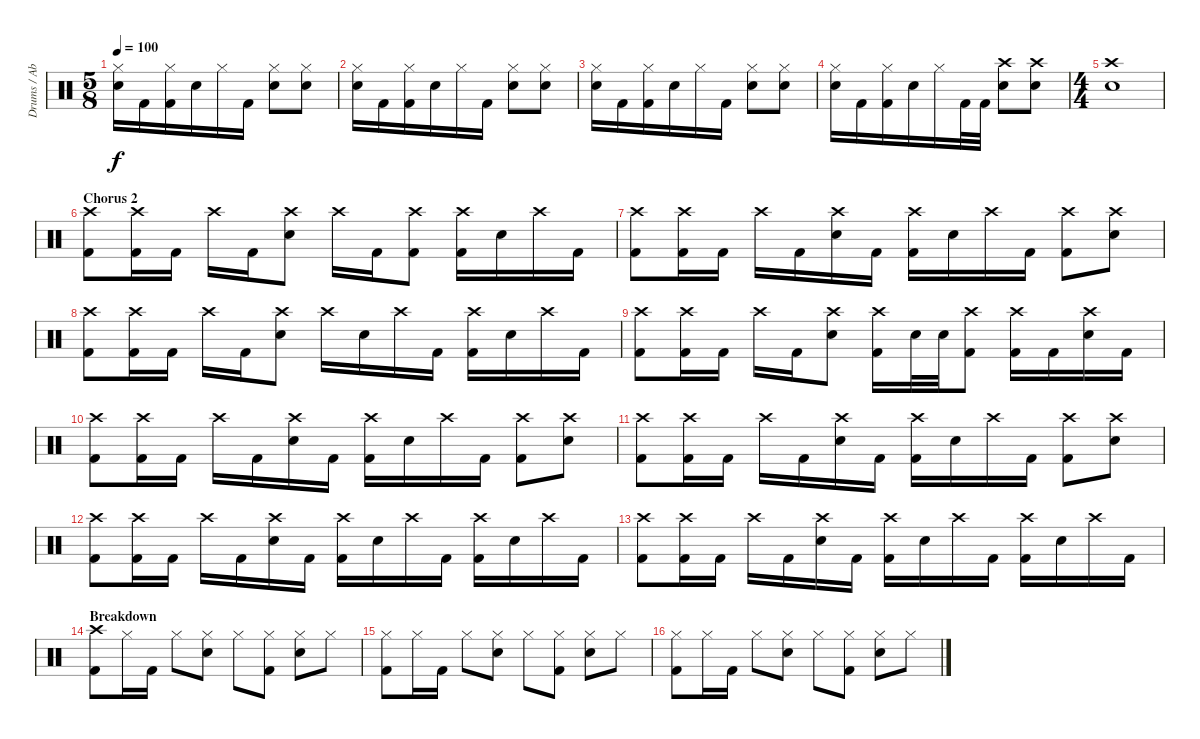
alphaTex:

\track ("Drums / Abe Cunningham" "Drums / Ab") {instrument percussion}
\staff {score}
\articulation defaults
\ts (5 8)
\tempo 100
\clef neutral
\ks c
("Hi-Hat (closed)" "Electric Snare (hit)").16{dy f} "Kick (hit) 2".16 ("Hi-Hat (closed)" "Kick (hit) 2").16 "Electric Snare (hit)".16 "Hi-Hat (closed)".16 "Kick (hit) 2".16 ("Hi-Hat (closed)" "Electric Snare (hit)").8 ("Hi-Hat (closed)" "Electric Snare (hit)").8 |
("Hi-Hat (closed)" "Electric Snare (hit)").16 "Kick (hit) 2".16 ("Hi-Hat (closed)" "Kick (hit) 2").16 "Electric Snare (hit)".16 "Hi-Hat (closed)".16 "Kick (hit) 2".16 ("Hi-Hat (closed)" "Electric Snare (hit)").8 ("Hi-Hat (closed)" "Electric Snare (hit)").8 |
("Hi-Hat (closed)" "Electric Snare (hit)").16 "Kick (hit) 2".16 ("Hi-Hat (closed)" "Kick (hit) 2").16 "Electric Snare (hit)".16 "Hi-Hat (closed)".16 "Kick (hit) 2".16 ("Hi-Hat (closed)" "Electric Snare (hit)").8 ("Hi-Hat (closed)" "Electric Snare (hit)").8 |
("Hi-Hat (closed)" "Electric Snare (hit)").16 "Kick (hit) 2".16 ("Hi-Hat (closed)" "Kick (hit) 2").16 "Electric Snare (hit)".16 "Hi-Hat (closed)".16 "Kick (hit) 2".32 "Kick (hit) 2".32 ("Crash high (hit)" "Electric Snare (hit)").8 ("Crash high (hit)" "Electric Snare (hit)").8 |
\ts (4 4)
("Crash high (hit)" "Electric Snare (hit)").1 |
\section ("" "Chorus 2")
("Crash high (hit)" "Kick (hit) 2").8 ("Crash high (hit)" "Kick (hit) 2").16 "Kick (hit) 2".16 "Crash high (hit)".16 "Kick (hit) 2".16 ("Crash high (hit)" "Electric Snare (hit)").8 "Crash high (hit)".16 "Kick (hit) 2".16 ("Crash high (hit)" "Kick (hit) 2").8 ("Crash high (hit)" "Kick (hit) 2").16 "Electric Snare (hit)".16 "Crash high (hit)".16 "Kick (hit) 2".16 |
("Crash high (hit)" "Kick (hit) 2").8 ("Crash high (hit)" "Kick (hit) 2").16 "Kick (hit) 2".16 "Crash high (hit)".16 "Kick (hit) 2".16 ("Crash high (hit)" "Electric Snare (hit)").16 "Kick (hit) 2".16 ("Crash high (hit)" "Kick (hit) 2").16 "Electric Snare (hit)".16 "Crash high (hit)".16 "Kick (hit) 2".16 ("Crash high (hit)" "Kick (hit) 2").8 ("Crash high (hit)" "Electric Snare (hit)").8 |
("Crash high (hit)" "Kick (hit) 2").8 ("Crash high (hit)" "Kick (hit) 2").16 "Kick (hit) 2".16 "Crash high (hit)".16 "Kick (hit) 2".16 ("Crash high (hit)" "Electric Snare (hit)").8 "Crash high (hit)".16 "Electric Snare (hit)".16 "Crash high (hit)".16 "Kick (hit) 2".16 ("Crash high (hit)" "Kick (hit) 2").16 "Electric Snare (hit)".16 "Crash high (hit)".16 "Kick (hit) 2".16 |
("Crash high (hit)" "Kick (hit) 2").8 ("Crash high (hit)" "Kick (hit) 2").16 "Kick (hit) 2".16 "Crash high (hit)".16 "Kick (hit) 2".16 ("Crash high (hit)" "Electric Snare (hit)").8 ("Crash high (hit)" "Kick (hit) 2").16 "Electric Snare (hit)".32 "Electric Snare (hit)".32 ("Crash high (hit)" "Kick (hit) 2").8 ("Crash high (hit)" "Kick (hit) 2").16 "Kick (hit) 2".16 ("Crash high (hit)" "Electric Snare (hit)").16 "Kick (hit) 2".16 |
("Crash high (hit)" "Kick (hit) 2").8 ("Crash high (hit)" "Kick (hit) 2").16 "Kick (hit) 2".16 "Crash high (hit)".16 "Kick (hit) 2".16 ("Crash high (hit)" "Electric Snare (hit)").16 "Kick (hit) 2".16 ("Crash high (hit)" "Kick (hit) 2").16 "Electric Snare (hit)".16 "Crash high (hit)".16 "Kick (hit) 2".16 ("Crash high (hit)" "Kick (hit) 2").8 ("Crash high (hit)" "Electric Snare (hit)").8 |
("Crash high (hit)" "Kick (hit) 2").8 ("Crash high (hit)" "Kick (hit) 2").16 "Kick (hit) 2".16 "Crash high (hit)".16 "Kick (hit) 2".16 ("Crash high (hit)" "Electric Snare (hit)").16 "Kick (hit) 2".16 ("Crash high (hit)" "Kick (hit) 2").16 "Electric Snare (hit)".16 "Crash high (hit)".16 "Kick (hit) 2".16 ("Crash high (hit)" "Kick (hit) 2").8 ("Crash high (hit)" "Electric Snare (hit)").8 |
("Crash high (hit)" "Kick (hit) 2").8 ("Crash high (hit)" "Kick (hit) 2").16 "Kick (hit) 2".16 "Crash high (hit)".16 "Kick (hit) 2".16 ("Crash high (hit)" "Electric Snare (hit)").16 "Kick (hit) 2".16 ("Crash high (hit)" "Kick (hit) 2").16 "Electric Snare (hit)".16 "Crash high (hit)".16 "Kick (hit) 2".16 ("Crash high (hit)" "Kick (hit) 2").16 "Electric Snare (hit)".16 "Crash high (hit)".16 "Kick (hit) 2".16 |
("Crash high (hit)" "Kick (hit) 2").8 ("Crash high (hit)" "Kick (hit) 2").16 "Kick (hit) 2".16 "Crash high (hit)".16 "Kick (hit) 2".16 ("Crash high (hit)" "Electric Snare (hit)").16 "Kick (hit) 2".16 ("Crash high (hit)" "Kick (hit) 2").16 "Electric Snare (hit)".16 "Crash high (hit)".16 "Kick (hit) 2".16 ("Crash high (hit)" "Kick (hit) 2").16 "Electric Snare (hit)".16 "Crash high (hit)".16 "Kick (hit) 2".16 |
\section ("" "Breakdown")
("Crash high (hit)" "Kick (hit) 2").8 "Hi-Hat (closed)".16 "Kick (hit) 2".16 "Hi-Hat (closed)".8 ("Hi-Hat (closed)" "Electric Snare (hit)").8 "Hi-Hat (closed)".8 ("Hi-Hat (closed)" "Kick (hit) 2").8 ("Hi-Hat (closed)" "Electric Snare (hit)").8 "Hi-Hat (closed)".8 |
("Hi-Hat (closed)" "Kick (hit) 2").8 "Hi-Hat (closed)".16 "Kick (hit) 2".16 "Hi-Hat (closed)".8 ("Hi-Hat (closed)" "Electric Snare (hit)").8 "Hi-Hat (closed)".8 ("Hi-Hat (closed)" "Kick (hit) 2").8 ("Hi-Hat (closed)" "Electric Snare (hit)").8 "Hi-Hat (closed)".8 |
("Hi-Hat (closed)" "Kick (hit) 2").8 "Hi-Hat (closed)".16 "Kick (hit) 2".16 "Hi-Hat (closed)".8 ("Hi-Hat (closed)" "Electric Snare (hit)").8 "Hi-Hat (closed)".8 ("Hi-Hat (closed)" "Kick (hit) 2").8 ("Hi-Hat (closed)" "Electric Snare (hit)").8 "Hi-Hat (closed)".8
